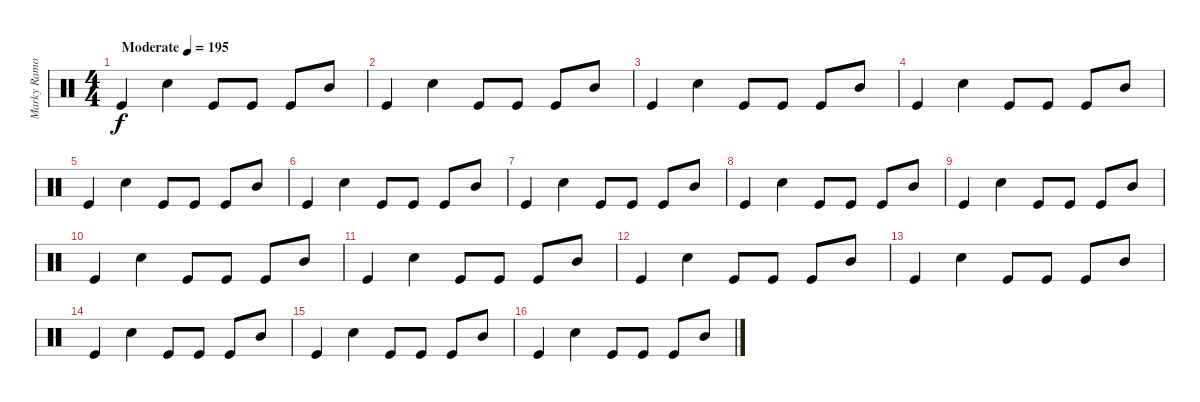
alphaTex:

\track ("Marky Ramone" "Marky Ramo") {instrument percussion}
\staff {score}
\articulation defaults
\ts (4 4)
\tempo (195 "Moderate")
\clef neutral
\ks c "Kick (hit)".4{dy f} "Electric Snare (hit)".4 "Kick (hit)".8 "Kick (hit)".8 "Kick (hit)".8 "Mid Tom (hit)".8
|
"Kick (hit)".4 "Electric Snare (hit)".4 "Kick (hit)".8 "Kick (hit)".8 "Kick (hit)".8 "Mid Tom (hit)".8 |
"Kick (hit)".4 "Electric Snare (hit)".4 "Kick (hit)".8 "Kick (hit)".8 "Kick (hit)".8 "Mid Tom (hit)".8 |
"Kick (hit)".4 "Electric Snare (hit)".4 "Kick (hit)".8 "Kick (hit)".8 "Kick (hit)".8 "Mid Tom (hit)".8 |
"Kick (hit)".4 "Electric Snare (hit)".4 "Kick (hit)".8 "Kick (hit)".8 "Kick (hit)".8 "Mid Tom (hit)".8 |
"Kick (hit)".4 "Electric Snare (hit)".4 "Kick (hit)".8 "Kick (hit)".8 "Kick (hit)".8 "Mid Tom (hit)".8 |
"Kick (hit)".4 "Electric Snare (hit)".4 "Kick (hit)".8 "Kick (hit)".8 "Kick (hit)".8 "Mid Tom (hit)".8 |
"Kick (hit)".4 "Electric Snare (hit)".4 "Kick (hit)".8 "Kick (hit)".8 "Kick (hit)".8 "Mid Tom (hit)".8 |
"Kick (hit)".4 "Electric Snare (hit)".4 "Kick (hit)".8 "Kick (hit)".8 "Kick (hit)".8 "Mid Tom (hit)".8 |
"Kick (hit)".4 "Electric Snare (hit)".4 "Kick (hit)".8 "Kick (hit)".8 "Kick (hit)".8 "Mid Tom (hit)".8 |
"Kick (hit)".4 "Electric Snare (hit)".4 "Kick (hit)".8 "Kick (hit)".8 "Kick (hit)".8 "Mid Tom (hit)".8 |
"Kick (hit)".4 "Electric Snare (hit)".4 "Kick (hit)".8 "Kick (hit)".8 "Kick (hit)".8 "Mid Tom (hit)".8 |
"Kick (hit)".4 "Electric Snare (hit)".4 "Kick (hit)".8 "Kick (hit)".8 "Kick (hit)".8 "Mid Tom (hit)".8 |
"Kick (hit)".4 "Electric Snare (hit)".4 "Kick (hit)".8 "Kick (hit)".8 "Kick (hit)".8 "Mid Tom (hit)".8 |
"Kick (hit)".4 "Electric Snare (hit)".4 "Kick (hit)".8 "Kick (hit)".8 "Kick (hit)".8 "Mid Tom (hit)".8 |
"Kick (hit)".4 "Electric Snare (hit)".4 "Kick (hit)".8 "Kick (hit)".8 "Kick (hit)".8 "Mid Tom (hit)".8
